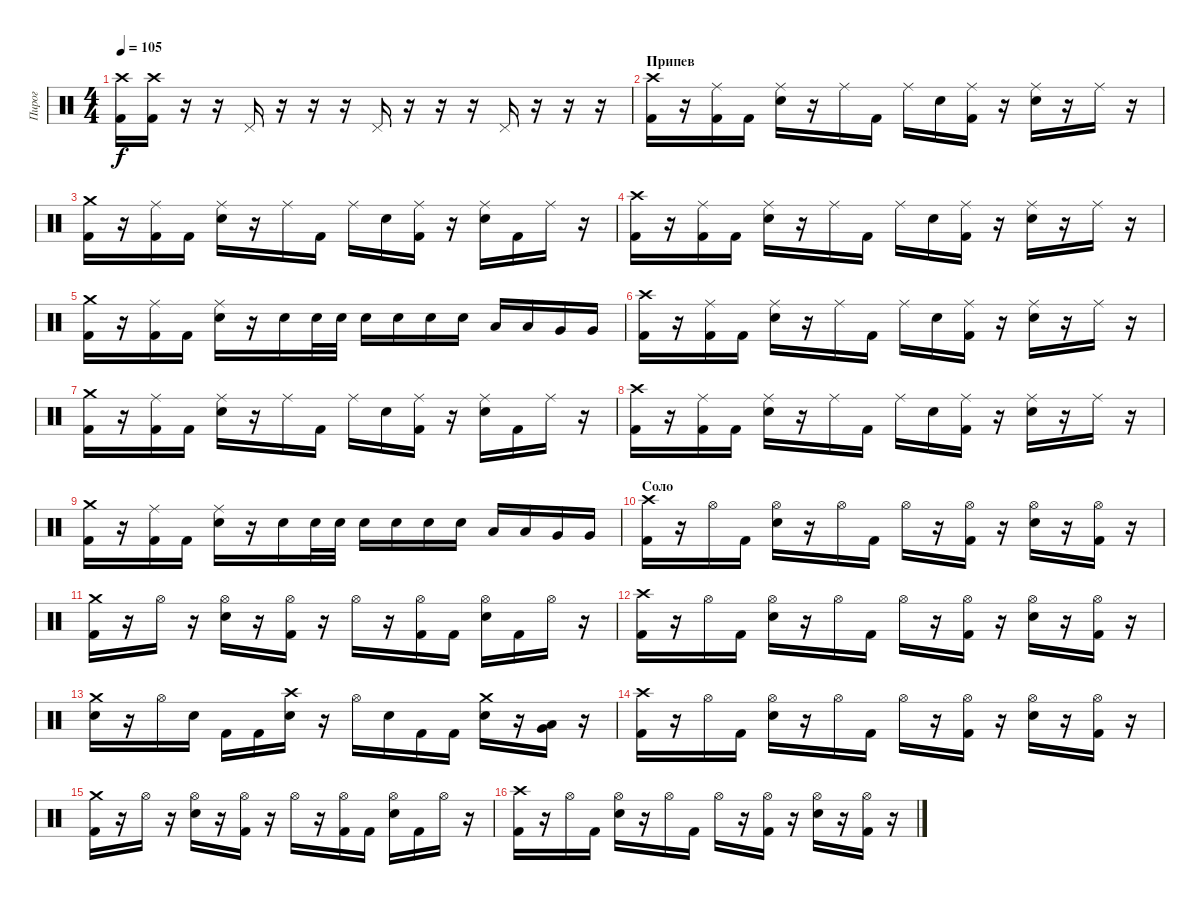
\track ("Пирог" "Пирог") {instrument percussion}
\staff {score}
\articulation defaults
\ts (4 4)
\tempo 105
\clef neutral
\ks c
("Crash high (hit)" "Kick (hit) 2").16{dy f} ("Crash high (hit)" "Kick (hit) 2").16 r.16 r.16 "Pedal Hi-Hat (hit)".16 r.16 r.16 r.16 "Pedal Hi-Hat (hit)".16 r.16 r.16 r.16 "Pedal Hi-Hat (hit)".16 r.16 r.16 r.16 |
\section ("" "Припев")
("Crash high (hit)" "Kick (hit) 2").16 r.16 ("Ride (middle)" "Kick (hit) 2").16 "Kick (hit) 2".16 ("Ride (middle)" "Electric Snare (hit)").16 r.16 "Ride (middle)".16 "Kick (hit) 2".16 "Ride (middle)".16 "Electric Snare (hit)".16 ("Ride (middle)" "Kick (hit) 2").16 r.16 ("Ride (middle)" "Electric Snare (hit)").16 r.16 "Ride (middle)".16 r.16 |
("Crash medium (hit)" "Kick (hit) 2").16 r.16 ("Ride (middle)" "Kick (hit) 2").16 "Kick (hit) 2".16 ("Ride (middle)" "Electric Snare (hit)").16 r.16 "Ride (middle)".16 "Kick (hit) 2".16 "Ride (middle)".16 "Electric Snare (hit)".16 ("Ride (middle)" "Kick (hit) 2").16 r.16 ("Ride (middle)" "Electric Snare (hit)").16 "Kick (hit) 2".16 "Ride (middle)".16 r.16 |
("Crash high (hit)" "Kick (hit) 2").16 r.16 ("Ride (middle)" "Kick (hit) 2").16 "Kick (hit) 2".16 ("Ride (middle)" "Electric Snare (hit)").16 r.16 "Ride (middle)".16 "Kick (hit) 2".16 "Ride (middle)".16 "Electric Snare (hit)".16 ("Ride (middle)" "Kick (hit) 2").16 r.16 ("Ride (middle)" "Electric Snare (hit)").16 r.16 "Ride (middle)".16 r.16 |
("Crash medium (hit)" "Kick (hit) 2").16 r.16 ("Ride (middle)" "Kick (hit) 2").16 "Kick (hit) 2".16 ("Ride (middle)" "Electric Snare (hit)").16 r.16 "Electric Snare (hit)".16 "Electric Snare (hit)".32 "Electric Snare (hit)".32 "Electric Snare (hit)".16 "Electric Snare (hit)".16 "Electric Snare (hit)".16 "Electric Snare (hit)".16 "Low Tom (hit)".16 "Low Tom (hit)".16 "Very Low Tom (hit)".16 "Very Low Tom (hit)".16 |
("Crash high (hit)" "Kick (hit) 2").16 r.16 ("Ride (middle)" "Kick (hit) 2").16 "Kick (hit) 2".16 ("Ride (middle)" "Electric Snare (hit)").16 r.16 "Ride (middle)".16 "Kick (hit) 2".16 "Ride (middle)".16 "Electric Snare (hit)".16 ("Ride (middle)" "Kick (hit) 2").16 r.16 ("Ride (middle)" "Electric Snare (hit)").16 r.16 "Ride (middle)".16 r.16 |
("Crash medium (hit)" "Kick (hit) 2").16 r.16 ("Ride (middle)" "Kick (hit) 2").16 "Kick (hit) 2".16 ("Ride (middle)" "Electric Snare (hit)").16 r.16 "Ride (middle)".16 "Kick (hit) 2".16 "Ride (middle)".16 "Electric Snare (hit)".16 ("Ride (middle)" "Kick (hit) 2").16 r.16 ("Ride (middle)" "Electric Snare (hit)").16 "Kick (hit) 2".16 "Ride (middle)".16 r.16 |
("Crash high (hit)" "Kick (hit) 2").16 r.16 ("Ride (middle)" "Kick (hit) 2").16 "Kick (hit) 2".16 ("Ride (middle)" "Electric Snare (hit)").16 r.16 "Ride (middle)".16 "Kick (hit) 2".16 "Ride (middle)".16 "Electric Snare (hit)".16 ("Ride (middle)" "Kick (hit) 2").16 r.16 ("Ride (middle)" "Electric Snare (hit)").16 r.16 "Ride (middle)".16 r.16 |
("Crash medium (hit)" "Kick (hit) 2").16 r.16 ("Ride (middle)" "Kick (hit) 2").16 "Kick (hit) 2".16 ("Ride (middle)" "Electric Snare (hit)").16 r.16 "Electric Snare (hit)".16 "Electric Snare (hit)".32 "Electric Snare (hit)".32 "Electric Snare (hit)".16 "Electric Snare (hit)".16 "Electric Snare (hit)".16 "Electric Snare (hit)".16 "Low Tom (hit)".16 "Low Tom (hit)".16 "Very Low Tom (hit)".16 "Very Low Tom (hit)".16 |
\section ("" "Соло ")
("Crash high (hit)" "Kick (hit) 2").16 r.16 "Hi-Hat (open)".16 "Kick (hit) 2".16 ("Hi-Hat (open)" "Electric Snare (hit)").16 r.16 "Hi-Hat (open)".16 "Kick (hit) 2".16 "Hi-Hat (open)".16 r.16 ("Hi-Hat (open)" "Kick (hit) 2").16 r.16 ("Hi-Hat (open)" "Electric Snare (hit)").16 r.16 ("Hi-Hat (open)" "Kick (hit) 2").16 r.16 |
("Crash medium (hit)" "Kick (hit) 2").16 r.16 "Hi-Hat (open)".16 r.16 ("Hi-Hat (open)" "Electric Snare (hit)").16 r.16 ("Hi-Hat (open)" "Kick (hit) 2").16 r.16 "Hi-Hat (open)".16 r.16 ("Hi-Hat (open)" "Kick (hit) 2").16 "Kick (hit) 2".16 ("Hi-Hat (open)" "Electric Snare (hit)").16 "Kick (hit) 2".16 "Hi-Hat (open)".16 r.16 |
("Crash high (hit)" "Kick (hit) 2").16 r.16 "Hi-Hat (open)".16 "Kick (hit) 2".16 ("Hi-Hat (open)" "Electric Snare (hit)").16 r.16 "Hi-Hat (open)".16 "Kick (hit) 2".16 "Hi-Hat (open)".16 r.16 ("Hi-Hat (open)" "Kick (hit) 2").16 r.16 ("Hi-Hat (open)" "Electric Snare (hit)").16 r.16 ("Hi-Hat (open)" "Kick (hit) 2").16 r.16 |
("Crash medium (hit)" "Electric Snare (hit)").16 r.16 "Hi-Hat (open)".16 "Electric Snare (hit)".16 "Kick (hit) 2".16 "Kick (hit) 2".16 ("Crash high (hit)" "Electric Snare (hit)").16 r.16 "Hi-Hat (open)".16 "Electric Snare (hit)".16 "Kick (hit) 2".16 "Kick (hit) 2".16 ("Crash medium (hit)" "Electric Snare (hit)").16 r.16 ("Very Low Tom (hit)" "Low Floor Tom (hit)").16 r.16 |
("Crash high (hit)" "Kick (hit) 2").16 r.16 "Hi-Hat (open)".16 "Kick (hit) 2".16 ("Hi-Hat (open)" "Electric Snare (hit)").16 r.16 "Hi-Hat (open)".16 "Kick (hit) 2".16 "Hi-Hat (open)".16 r.16 ("Hi-Hat (open)" "Kick (hit) 2").16 r.16 ("Hi-Hat (open)" "Electric Snare (hit)").16 r.16 ("Hi-Hat (open)" "Kick (hit) 2").16 r.16 |
("Crash medium (hit)" "Kick (hit) 2").16 r.16 "Hi-Hat (open)".16 r.16 ("Hi-Hat (open)" "Electric Snare (hit)").16 r.16 ("Hi-Hat (open)" "Kick (hit) 2").16 r.16 "Hi-Hat (open)".16 r.16 ("Hi-Hat (open)" "Kick (hit) 2").16 "Kick (hit) 2".16 ("Hi-Hat (open)" "Electric Snare (hit)").16 "Kick (hit) 2".16 "Hi-Hat (open)".16 r.16 |
("Crash high (hit)" "Kick (hit) 2").16 r.16 "Hi-Hat (open)".16 "Kick (hit) 2".16 ("Hi-Hat (open)" "Electric Snare (hit)").16 r.16 "Hi-Hat (open)".16 "Kick (hit) 2".16 "Hi-Hat (open)".16 r.16 ("Hi-Hat (open)" "Kick (hit) 2").16 r.16 ("Hi-Hat (open)" "Electric Snare (hit)").16 r.16 ("Hi-Hat (open)" "Kick (hit) 2").16 r.16
